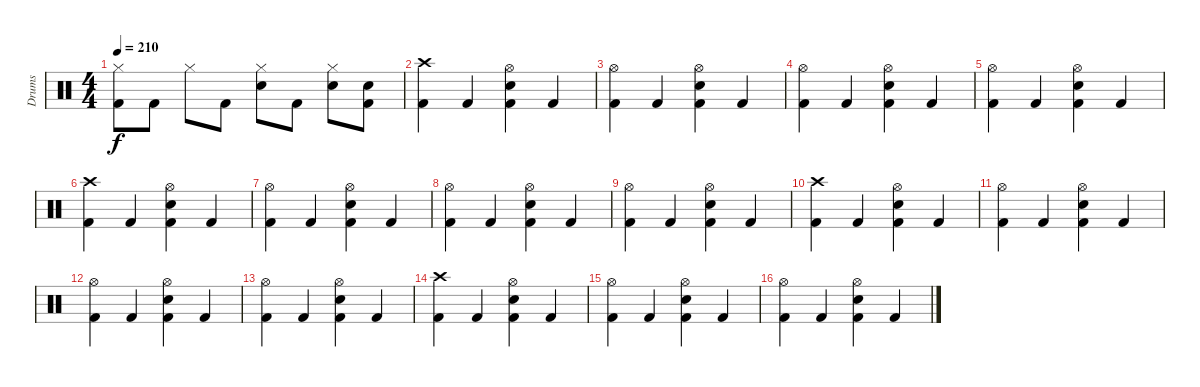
\track ("Drums" "Drums") {instrument percussion}
\staff {score}
\articulation defaults
\ts (4 4)
\tempo 210
\clef neutral
\ks c
("Kick (hit) 2" "Hi-Hat (closed)").8{dy f} "Kick (hit) 2".8 "Hi-Hat (closed)".8 "Kick (hit) 2".8 ("Snare (hit) 2" "Hi-Hat (closed)").8 "Kick (hit) 2".8 ("Snare (hit) 2" "Hi-Hat (closed)").8 ("Kick (hit) 2" "Snare (hit) 2").8 |
("Kick (hit) 2" "Crash high (hit)").4 "Kick (hit) 2".4 ("Kick (hit) 2" "Snare (hit) 2" "Hi-Hat (open)").4 "Kick (hit) 2".4 |
("Kick (hit) 2" "Hi-Hat (open)").4 "Kick (hit) 2".4 ("Kick (hit) 2" "Snare (hit) 2" "Hi-Hat (open)").4 "Kick (hit) 2".4 |
("Kick (hit) 2" "Hi-Hat (open)").4 "Kick (hit) 2".4 ("Kick (hit) 2" "Snare (hit) 2" "Hi-Hat (open)").4 "Kick (hit) 2".4 |
("Kick (hit) 2" "Hi-Hat (open)").4 "Kick (hit) 2".4 ("Kick (hit) 2" "Snare (hit) 2" "Hi-Hat (open)").4 "Kick (hit) 2".4 |
("Kick (hit) 2" "Crash high (hit)").4 "Kick (hit) 2".4 ("Kick (hit) 2" "Snare (hit) 2" "Hi-Hat (open)").4 "Kick (hit) 2".4 |
("Kick (hit) 2" "Hi-Hat (open)").4 "Kick (hit) 2".4 ("Kick (hit) 2" "Snare (hit) 2" "Hi-Hat (open)").4 "Kick (hit) 2".4 |
("Kick (hit) 2" "Hi-Hat (open)").4 "Kick (hit) 2".4 ("Kick (hit) 2" "Snare (hit) 2" "Hi-Hat (open)").4 "Kick (hit) 2".4 |
("Kick (hit) 2" "Hi-Hat (open)").4 "Kick (hit) 2".4 ("Kick (hit) 2" "Snare (hit) 2" "Hi-Hat (open)").4 "Kick (hit) 2".4 |
("Kick (hit) 2" "Crash high (hit)").4 "Kick (hit) 2".4 ("Kick (hit) 2" "Snare (hit) 2" "Hi-Hat (open)").4 "Kick (hit) 2".4 |
("Kick (hit) 2" "Hi-Hat (open)").4 "Kick (hit) 2".4 ("Kick (hit) 2" "Snare (hit) 2" "Hi-Hat (open)").4 "Kick (hit) 2".4 |
("Kick (hit) 2" "Hi-Hat (open)").4 "Kick (hit) 2".4 ("Kick (hit) 2" "Snare (hit) 2" "Hi-Hat (open)").4 "Kick (hit) 2".4 |
("Kick (hit) 2" "Hi-Hat (open)").4 "Kick (hit) 2".4 ("Kick (hit) 2" "Snare (hit) 2" "Hi-Hat (open)").4 "Kick (hit) 2".4 |
("Kick (hit) 2" "Crash high (hit)").4 "Kick (hit) 2".4 ("Kick (hit) 2" "Snare (hit) 2" "Hi-Hat (open)").4 "Kick (hit) 2".4 |
("Kick (hit) 2" "Hi-Hat (open)").4 "Kick (hit) 2".4 ("Kick (hit) 2" "Snare (hit) 2" "Hi-Hat (open)").4 "Kick (hit) 2".4 |
("Kick (hit) 2" "Hi-Hat (open)").4 "Kick (hit) 2".4 ("Kick (hit) 2" "Snare (hit) 2" "Hi-Hat (open)").4 "Kick (hit) 2".4
